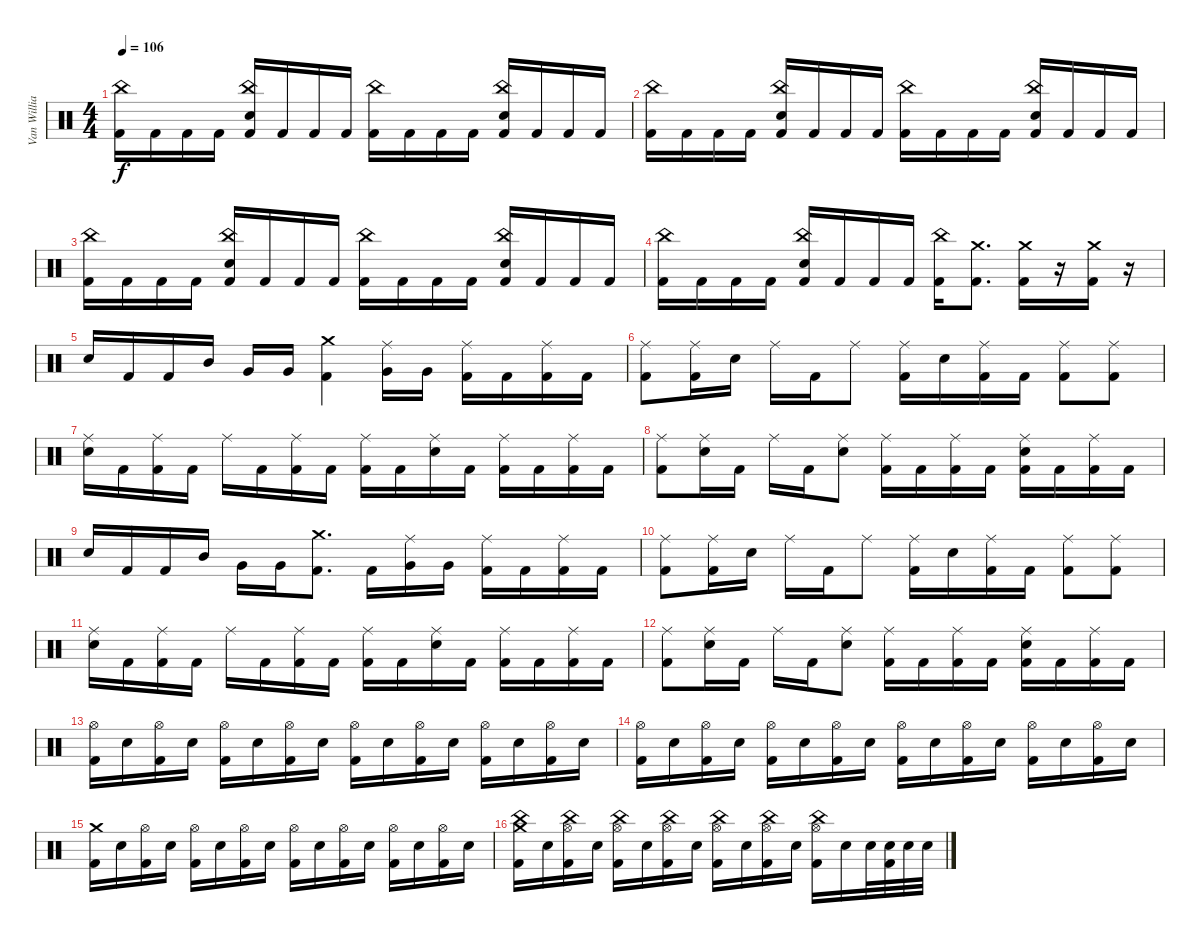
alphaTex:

\track ("Van Williams" "Van Willia") {instrument percussion}
\staff {score}
\articulation defaults
\ts (4 4)
\tempo 106
\clef neutral
\ks c
("Kick (hit) 2" "China (hit)").16{dy f} "Kick (hit) 2".16 "Kick (hit) 2".16 "Kick (hit) 2".16 ("Kick (hit) 2" "China (hit)" "Electric Snare (hit)").16 "Kick (hit) 2".16 "Kick (hit) 2".16 "Kick (hit) 2".16 ("Kick (hit) 2" "China (hit)").16 "Kick (hit) 2".16 "Kick (hit) 2".16 "Kick (hit) 2".16 ("Kick (hit) 2" "China (hit)" "Electric Snare (hit)").16 "Kick (hit) 2".16 "Kick (hit) 2".16 "Kick (hit) 2".16 |
("Kick (hit) 2" "China (hit)").16 "Kick (hit) 2".16 "Kick (hit) 2".16 "Kick (hit) 2".16 ("Kick (hit) 2" "China (hit)" "Electric Snare (hit)").16 "Kick (hit) 2".16 "Kick (hit) 2".16 "Kick (hit) 2".16 ("Kick (hit) 2" "China (hit)").16 "Kick (hit) 2".16 "Kick (hit) 2".16 "Kick (hit) 2".16 ("Kick (hit) 2" "China (hit)" "Electric Snare (hit)").16 "Kick (hit) 2".16 "Kick (hit) 2".16 "Kick (hit) 2".16 |
("Kick (hit) 2" "China (hit)").16 "Kick (hit) 2".16 "Kick (hit) 2".16 "Kick (hit) 2".16 ("Kick (hit) 2" "China (hit)" "Electric Snare (hit)").16 "Kick (hit) 2".16 "Kick (hit) 2".16 "Kick (hit) 2".16 ("Kick (hit) 2" "China (hit)").16 "Kick (hit) 2".16 "Kick (hit) 2".16 "Kick (hit) 2".16 ("Kick (hit) 2" "China (hit)" "Electric Snare (hit)").16 "Kick (hit) 2".16 "Kick (hit) 2".16 "Kick (hit) 2".16 |
("Kick (hit) 2" "China (hit)").16 "Kick (hit) 2".16 "Kick (hit) 2".16 "Kick (hit) 2".16 ("Kick (hit) 2" "China (hit)" "Electric Snare (hit)").16 "Kick (hit) 2".16 "Kick (hit) 2".16 "Kick (hit) 2".16 ("Kick (hit) 2" "China (hit)").16 ("Kick (hit) 2" "Crash medium (hit)").8{d} ("Kick (hit) 2" "Crash medium (hit)").16 r.16 ("Kick (hit) 2" "Crash medium (hit)").16 r.16 |
"Electric Snare (hit)".16 "Kick (hit) 2".16 "Kick (hit) 2".16 "Mid Tom (hit)".16 "Very Low Tom (hit)".16 "Very Low Tom (hit)".16 ("Kick (hit) 2" "Crash medium (hit)").4 ("Very Low Tom (hit)" "Ride (middle)").16 "Very Low Tom (hit)".16 ("Kick (hit) 2" "Ride (middle)").16 "Kick (hit) 2".16 ("Kick (hit) 2" "Ride (middle)").16 "Kick (hit) 2".16 |
("Kick (hit) 2" "Ride (middle)").8 ("Kick (hit) 2" "Ride (middle)").16 "Electric Snare (hit)".16 "Ride (middle)".16 "Kick (hit) 2".16 "Ride (middle)".8 ("Kick (hit) 2" "Ride (middle)").16 "Electric Snare (hit)".16 ("Kick (hit) 2" "Ride (middle)").16 "Kick (hit) 2".16 ("Kick (hit) 2" "Ride (middle)").8 ("Kick (hit) 2" "Ride (middle)").8 |
("Electric Snare (hit)" "Ride (middle)").16 "Kick (hit) 2".16 ("Kick (hit) 2" "Ride (middle)").16 "Kick (hit) 2".16 "Ride (middle)".16 "Kick (hit) 2".16 ("Kick (hit) 2" "Ride (middle)").16 "Kick (hit) 2".16 ("Kick (hit) 2" "Ride (middle)").16 "Kick (hit) 2".16 ("Electric Snare (hit)" "Ride (middle)").16 "Kick (hit) 2".16 ("Kick (hit) 2" "Ride (middle)").16 "Kick (hit) 2".16 ("Kick (hit) 2" "Ride (middle)").16 "Kick (hit) 2".16 |
("Kick (hit) 2" "Ride (middle)").8 ("Electric Snare (hit)" "Ride (middle)").16 "Kick (hit) 2".16 "Ride (middle)".16 "Kick (hit) 2".16 ("Electric Snare (hit)" "Ride (middle)").8 ("Kick (hit) 2" "Ride (middle)").16 "Kick (hit) 2".16 ("Kick (hit) 2" "Ride (middle)").16 "Kick (hit) 2".16 ("Kick (hit) 2" "Electric Snare (hit)" "Ride (middle)").16 "Kick (hit) 2".16 ("Kick (hit) 2" "Ride (middle)").16 "Kick (hit) 2".16 |
"Electric Snare (hit)".16 "Kick (hit) 2".16 "Kick (hit) 2".16 "Mid Tom (hit)".16 "Very Low Tom (hit)".16 "Very Low Tom (hit)".16 ("Kick (hit) 2" "Crash medium (hit)").8{d} "Kick (hit) 2".16 ("Very Low Tom (hit)" "Ride (middle)").16 "Very Low Tom (hit)".16 ("Kick (hit) 2" "Ride (middle)").16 "Kick (hit) 2".16 ("Kick (hit) 2" "Ride (middle)").16 "Kick (hit) 2".16 |
("Kick (hit) 2" "Ride (middle)").8 ("Kick (hit) 2" "Ride (middle)").16 "Electric Snare (hit)".16 "Ride (middle)".16 "Kick (hit) 2".16 "Ride (middle)".8 ("Kick (hit) 2" "Ride (middle)").16 "Electric Snare (hit)".16 ("Kick (hit) 2" "Ride (middle)").16 "Kick (hit) 2".16 ("Kick (hit) 2" "Ride (middle)").8 ("Kick (hit) 2" "Ride (middle)").8 |
("Electric Snare (hit)" "Ride (middle)").16 "Kick (hit) 2".16 ("Kick (hit) 2" "Ride (middle)").16 "Kick (hit) 2".16 "Ride (middle)".16 "Kick (hit) 2".16 ("Kick (hit) 2" "Ride (middle)").16 "Kick (hit) 2".16 ("Kick (hit) 2" "Ride (middle)").16 "Kick (hit) 2".16 ("Electric Snare (hit)" "Ride (middle)").16 "Kick (hit) 2".16 ("Kick (hit) 2" "Ride (middle)").16 "Kick (hit) 2".16 ("Kick (hit) 2" "Ride (middle)").16 "Kick (hit) 2".16 |
("Kick (hit) 2" "Ride (middle)").8 ("Electric Snare (hit)" "Ride (middle)").16 "Kick (hit) 2".16 "Ride (middle)".16 "Kick (hit) 2".16 ("Electric Snare (hit)" "Ride (middle)").8 ("Kick (hit) 2" "Ride (middle)").16 "Kick (hit) 2".16 ("Kick (hit) 2" "Ride (middle)").16 "Kick (hit) 2".16 ("Kick (hit) 2" "Electric Snare (hit)" "Ride (middle)").16 "Kick (hit) 2".16 ("Kick (hit) 2" "Ride (middle)").16 "Kick (hit) 2".16 |
("Kick (hit) 2" "Hi-Hat (open)").16 "Electric Snare (hit)".16 ("Kick (hit) 2" "Hi-Hat (open)").16 "Electric Snare (hit)".16 ("Kick (hit) 2" "Hi-Hat (open)").16 "Electric Snare (hit)".16 ("Kick (hit) 2" "Hi-Hat (open)").16 "Electric Snare (hit)".16 ("Kick (hit) 2" "Hi-Hat (open)").16 "Electric Snare (hit)".16 ("Kick (hit) 2" "Hi-Hat (open)").16 "Electric Snare (hit)".16 ("Kick (hit) 2" "Hi-Hat (open)").16 "Electric Snare (hit)".16 ("Kick (hit) 2" "Hi-Hat (open)").16 "Electric Snare (hit)".16 |
("Kick (hit) 2" "Hi-Hat (open)").16 "Electric Snare (hit)".16 ("Kick (hit) 2" "Hi-Hat (open)").16 "Electric Snare (hit)".16 ("Kick (hit) 2" "Hi-Hat (open)").16 "Electric Snare (hit)".16 ("Kick (hit) 2" "Hi-Hat (open)").16 "Electric Snare (hit)".16 ("Kick (hit) 2" "Hi-Hat (open)").16 "Electric Snare (hit)".16 ("Kick (hit) 2" "Hi-Hat (open)").16 "Electric Snare (hit)".16 ("Kick (hit) 2" "Hi-Hat (open)").16 "Electric Snare (hit)".16 ("Kick (hit) 2" "Hi-Hat (open)").16 "Electric Snare (hit)".16 |
("Crash medium (hit)" "Kick (hit) 2").16 "Electric Snare (hit)".16 ("Kick (hit) 2" "Hi-Hat (open)").16 "Electric Snare (hit)".16 ("Kick (hit) 2" "Hi-Hat (open)").16 "Electric Snare (hit)".16 ("Kick (hit) 2" "Hi-Hat (open)").16 "Electric Snare (hit)".16 ("Kick (hit) 2" "Hi-Hat (open)").16 "Electric Snare (hit)".16 ("Kick (hit) 2" "Hi-Hat (open)").16 "Electric Snare (hit)".16 ("Kick (hit) 2" "Hi-Hat (open)").16 "Electric Snare (hit)".16 ("Kick (hit) 2" "Hi-Hat (open)").16 "Electric Snare (hit)".16 |
("Crash medium (hit)" "Kick (hit) 2" "China (hit)").16 "Electric Snare (hit)".16 ("Kick (hit) 2" "Hi-Hat (open)" "China (hit)").16 "Electric Snare (hit)".16 ("Kick (hit) 2" "Hi-Hat (open)" "China (hit)").16 "Electric Snare (hit)".16 ("Kick (hit) 2" "Hi-Hat (open)" "China (hit)").16 "Electric Snare (hit)".16 ("Kick (hit) 2" "Hi-Hat (open)" "China (hit)").16 "Electric Snare (hit)".16 ("Kick (hit) 2" "Hi-Hat (open)" "China (hit)").16 "Electric Snare (hit)".16 ("Kick (hit) 2" "Hi-Hat (open)" "China (hit)").16 "Electric Snare (hit)".16 "Electric Snare (hit)".32 ("Electric Snare (hit)" "Kick (hit) 2").32 "Electric Snare (hit)".32 "Electric Snare (hit)".32
